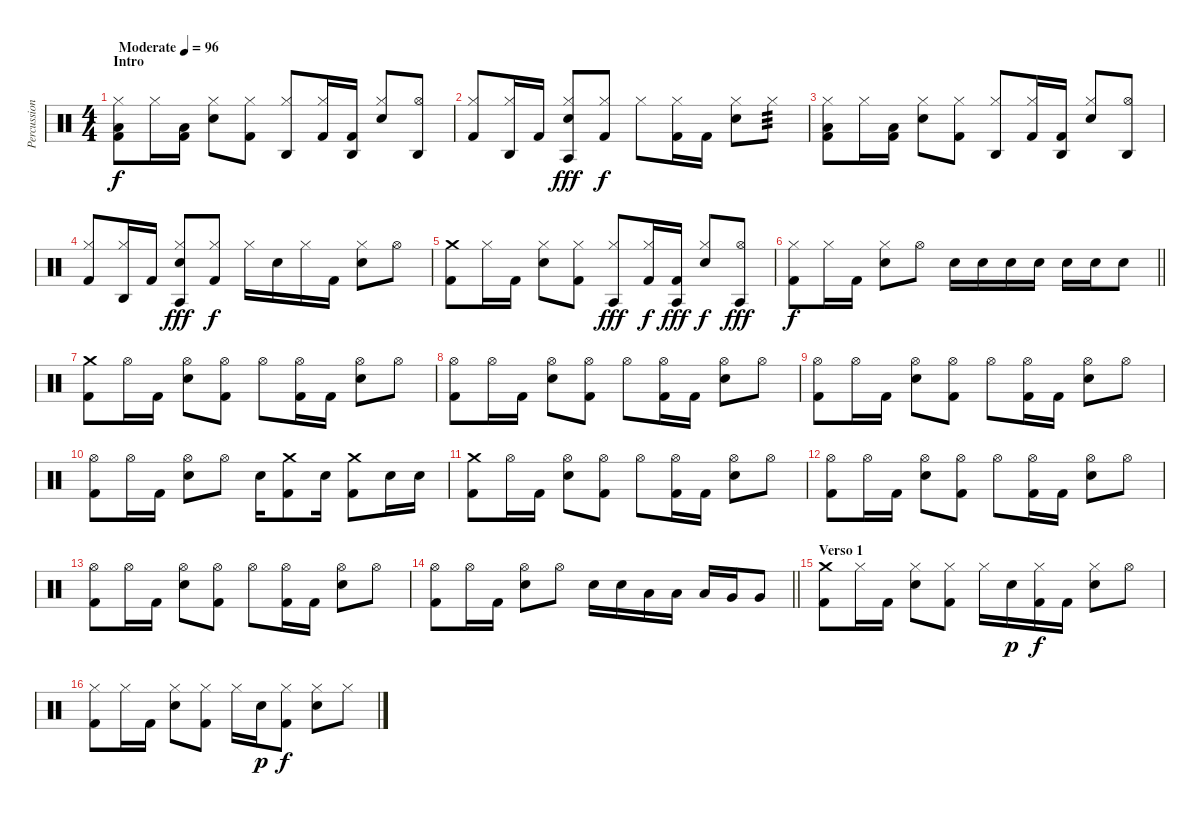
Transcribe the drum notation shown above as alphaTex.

\track ("Percussion" "Percussion") {instrument percussion}
\staff {score}
\articulation defaults
\ts (4 4)
\section ("" "Intro")
\tempo (96 "Moderate")
\clef neutral
\ks c
("Low Floor Tom (hit)" "Hi-Hat (closed)" "Kick (hit) 2").8{dy f} "Hi-Hat (closed)".16 ("Low Floor Tom (hit)" "Kick (hit) 2").16 ("Hi-Hat (closed)" "Electric Snare (hit)").8 ("Hi-Hat (closed)" "Kick (hit) 2").8 ("Agogo high (hit)" "Hi-Hat (closed)").8 ("Hi-Hat (closed)" "Kick (hit) 2").16 ("Agogo high (hit)" "Kick (hit) 2").16 ("Hi-Hat (closed)" "Electric Snare (hit)").8 ("Agogo high (hit)" "Hi-Hat (open)").8 |
("Hi-Hat (closed)" "Kick (hit) 2").8 ("Agogo high (hit)" "Hi-Hat (closed)").16 "Kick (hit) 2".16 ("Agogo tow (hit)" "Hi-Hat (closed)" "Electric Snare (hit)").8{dy fff} ("Hi-Hat (closed)" "Kick (hit) 2").8{dy f} "Hi-Hat (closed)".8 ("Hi-Hat (closed)" "Kick (hit) 2").16 "Kick (hit) 2".16 ("Hi-Hat (closed)" "Electric Snare (hit)").8 "Hi-Hat (closed)".8{tp 3} |
("Low Floor Tom (hit)" "Hi-Hat (closed)" "Kick (hit) 2").8 "Hi-Hat (closed)".16 ("Low Floor Tom (hit)" "Kick (hit) 2").16 ("Hi-Hat (closed)" "Electric Snare (hit)").8 ("Hi-Hat (closed)" "Kick (hit) 2").8 ("Agogo high (hit)" "Hi-Hat (closed)").8 ("Hi-Hat (closed)" "Kick (hit) 2").16 ("Agogo high (hit)" "Kick (hit) 2").16 ("Hi-Hat (closed)" "Electric Snare (hit)").8 ("Agogo high (hit)" "Hi-Hat (open)").8 |
("Hi-Hat (closed)" "Kick (hit) 2").8 ("Agogo high (hit)" "Hi-Hat (closed)").16 "Kick (hit) 2".16 ("Agogo tow (hit)" "Hi-Hat (closed)" "Electric Snare (hit)").8{dy fff} ("Hi-Hat (closed)" "Kick (hit) 2").8{dy f} "Hi-Hat (closed)".16 "Electric Snare (hit)".16 "Hi-Hat (closed)".16 "Kick (hit) 2".16 ("Hi-Hat (closed)" "Electric Snare (hit)").8 "Hi-Hat (open)".8 |
("Crash medium (hit)" "Kick (hit) 2").8 "Hi-Hat (closed)".16 "Kick (hit) 2".16 ("Hi-Hat (closed)" "Electric Snare (hit)").8 ("Hi-Hat (closed)" "Kick (hit) 2").8 ("Agogo tow (hit)" "Hi-Hat (closed)").8{dy fff} ("Hi-Hat (closed)" "Kick (hit) 2").16{dy f} ("Agogo tow (hit)" "Kick (hit) 2").16{dy fff} ("Hi-Hat (closed)" "Electric Snare (hit)").8{dy f} ("Agogo tow (hit)" "Hi-Hat (open)").8{dy fff} |
\barLineRight lightlight
("Hi-Hat (closed)" "Kick (hit) 2").8{dy f} "Hi-Hat (closed)".16 "Kick (hit) 2".16 ("Hi-Hat (closed)" "Electric Snare (hit)").8 "Hi-Hat (open)".8 "Electric Snare (hit)".16 "Electric Snare (hit)".16 "Electric Snare (hit)".16 "Electric Snare (hit)".16 "Electric Snare (hit)".16 "Electric Snare (hit)".16 "Electric Snare (hit)".8 |
("Crash medium (hit)" "Kick (hit) 2").8 "Hi-Hat (open)".16 "Kick (hit) 2".16 ("Hi-Hat (open)" "Electric Snare (hit)").8 ("Hi-Hat (open)" "Kick (hit) 2").8 "Hi-Hat (open)".8 ("Hi-Hat (open)" "Kick (hit) 2").16 "Kick (hit) 2".16 ("Hi-Hat (open)" "Electric Snare (hit)").8 "Hi-Hat (open)".8 |
("Hi-Hat (open)" "Kick (hit) 2").8 "Hi-Hat (open)".16 "Kick (hit) 2".16 ("Hi-Hat (open)" "Electric Snare (hit)").8 ("Hi-Hat (open)" "Kick (hit) 2").8 "Hi-Hat (open)".8 ("Hi-Hat (open)" "Kick (hit) 2").16 "Kick (hit) 2".16 ("Hi-Hat (open)" "Electric Snare (hit)").8 "Hi-Hat (open)".8 |
("Hi-Hat (open)" "Kick (hit) 2").8 "Hi-Hat (open)".16 "Kick (hit) 2".16 ("Hi-Hat (open)" "Electric Snare (hit)").8 ("Hi-Hat (open)" "Kick (hit) 2").8 "Hi-Hat (open)".8 ("Hi-Hat (open)" "Kick (hit) 2").16 "Kick (hit) 2".16 ("Hi-Hat (open)" "Electric Snare (hit)").8 "Hi-Hat (open)".8 |
("Hi-Hat (open)" "Kick (hit) 2").8 "Hi-Hat (open)".16 "Kick (hit) 2".16 ("Hi-Hat (open)" "Electric Snare (hit)").8 "Hi-Hat (open)".8 "Electric Snare (hit)".16 ("Crash medium (hit)" "Kick (hit) 2").8 "Electric Snare (hit)".16 ("Crash medium (hit)" "Kick (hit) 2").8 "Electric Snare (hit)".16 "Electric Snare (hit)".16 |
("Crash medium (hit)" "Kick (hit) 2").8 "Hi-Hat (open)".16 "Kick (hit) 2".16 ("Hi-Hat (open)" "Electric Snare (hit)").8 ("Hi-Hat (open)" "Kick (hit) 2").8 "Hi-Hat (open)".8 ("Hi-Hat (open)" "Kick (hit) 2").16 "Kick (hit) 2".16 ("Hi-Hat (open)" "Electric Snare (hit)").8 "Hi-Hat (open)".8 |
("Hi-Hat (open)" "Kick (hit) 2").8 "Hi-Hat (open)".16 "Kick (hit) 2".16 ("Hi-Hat (open)" "Electric Snare (hit)").8 ("Hi-Hat (open)" "Kick (hit) 2").8 "Hi-Hat (open)".8 ("Hi-Hat (open)" "Kick (hit) 2").16 "Kick (hit) 2".16 ("Hi-Hat (open)" "Electric Snare (hit)").8 "Hi-Hat (open)".8 |
("Hi-Hat (open)" "Kick (hit) 2").8 "Hi-Hat (open)".16 "Kick (hit) 2".16 ("Hi-Hat (open)" "Electric Snare (hit)").8 ("Hi-Hat (open)" "Kick (hit) 2").8 "Hi-Hat (open)".8 ("Hi-Hat (open)" "Kick (hit) 2").16 "Kick (hit) 2".16 ("Hi-Hat (open)" "Electric Snare (hit)").8 "Hi-Hat (open)".8 |
\barLineRight lightlight
("Hi-Hat (open)" "Kick (hit) 2").8 "Hi-Hat (open)".16 "Kick (hit) 2".16 ("Hi-Hat (open)" "Electric Snare (hit)").8 "Hi-Hat (open)".8 "Electric Snare (hit)".16 "Electric Snare (hit)".16 "Low Tom (hit)".16 "Low Tom (hit)".16 "Low Tom (hit)".16 "Very Low Tom (hit)".16 "Very Low Tom (hit)".8 |
\section ("" "Verso 1")
("Crash medium (hit)" "Kick (hit) 2").8 "Hi-Hat (closed)".16 "Kick (hit) 2".16 ("Hi-Hat (closed)" "Electric Snare (hit)").8 ("Hi-Hat (closed)" "Kick (hit) 2").8 "Hi-Hat (closed)".16 "Electric Snare (hit)".16{dy p} ("Hi-Hat (closed)" "Kick (hit) 2").16{dy f} "Kick (hit) 2".16 ("Hi-Hat (closed)" "Electric Snare (hit)").8 "Hi-Hat (open)".8 |
("Hi-Hat (closed)" "Kick (hit) 2").8 "Hi-Hat (closed)".16 "Kick (hit) 2".16 ("Hi-Hat (closed)" "Electric Snare (hit)").8 ("Hi-Hat (closed)" "Kick (hit) 2").8 "Hi-Hat (closed)".16 "Electric Snare (hit)".16{dy p} ("Hi-Hat (closed)" "Kick (hit) 2").8{dy f} ("Hi-Hat (closed)" "Electric Snare (hit)").8 "Hi-Hat (closed)".8
